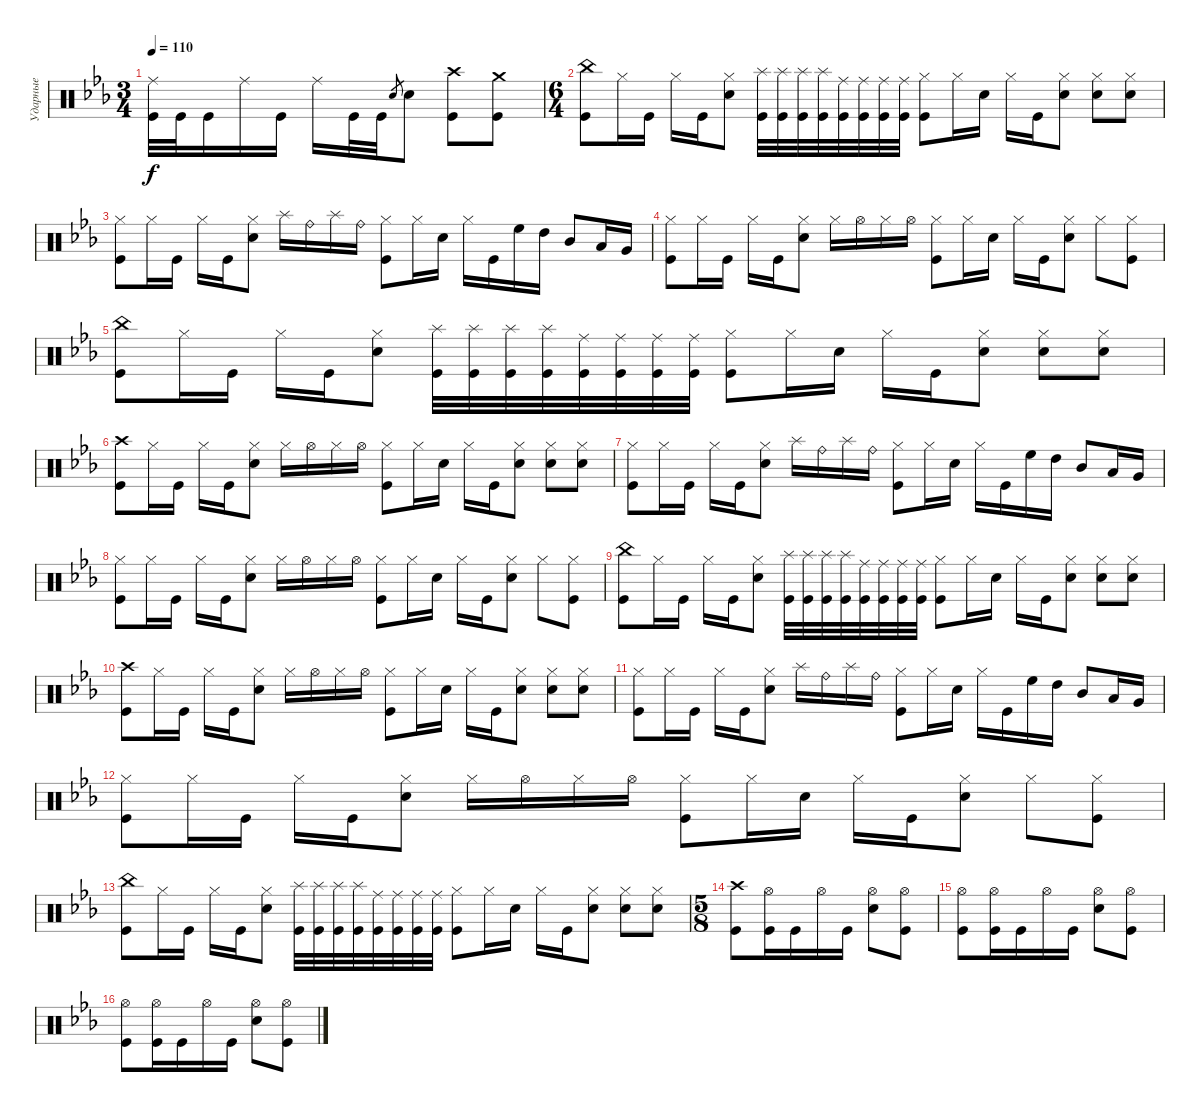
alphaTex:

\track ("Ударные" "Ударные") {instrument percussion}
\staff {score}
\articulation defaults
\ts (3 4)
\tempo 110
\clef neutral
\ks cminor
("Kick (hit)" "Ride (middle)").32{dy f} "Kick (hit)".32 "Kick (hit)".16 "Ride (middle)".16 "Kick (hit)".16 "Ride (middle)".16 "Kick (hit)".32 "Kick (hit)".32 "Snare (hit) 2".8{gr} "Snare (hit) 2".8 ("Kick (hit)" "Crash high (hit)").8 ("Kick (hit)" "Crash medium (hit)").8 |
\ts (6 4)
("Kick (hit)" "China (hit)").8 "Hi-Hat (closed)".16 "Kick (hit)".16 "Hi-Hat (closed)".16 "Kick (hit)".16 ("Hi-Hat (closed)" "Snare (hit) 2").8 ("Kick (hit)" "Splash (hit)").32 ("Kick (hit)" "Splash (hit)").32 ("Kick (hit)" "Splash (hit)").32 ("Kick (hit)" "Splash (hit)").32 ("Kick (hit)" "Ride (middle)").32 ("Kick (hit)" "Ride (middle)").32 ("Kick (hit)" "Ride (middle)").32 ("Kick (hit)" "Ride (middle)").32 ("Kick (hit)" "Hi-Hat (closed)").8 "Hi-Hat (closed)".16 "Snare (hit) 2".16 "Hi-Hat (closed)".16 "Kick (hit)".16 ("Snare (hit) 2" "Hi-Hat (closed)").8 ("Hi-Hat (closed)" "Snare (hit) 2").8 ("Hi-Hat (closed)" "Snare (hit) 2").8 |
("Kick (hit)" "Hi-Hat (closed)").8 "Hi-Hat (closed)".16 "Kick (hit)".16 "Hi-Hat (closed)".16 "Kick (hit)".16 ("Hi-Hat (closed)" "Snare (hit) 2").8 "Splash (hit)".16 "Ride (bell)".16 "Splash (hit)".16 "Ride (bell)".16 ("Kick (hit)" "Hi-Hat (closed)").8 "Hi-Hat (closed)".16 "Snare (hit) 2".16 "Hi-Hat (closed)".16 "Kick (hit)".16 "High Floor Tom (hit)".16 "High Tom (hit)".16 "Mid Tom (hit)".8 "Low Tom (hit)".16 "Very Low Tom (hit)".16 |
("Kick (hit)" "Hi-Hat (closed)").8 "Hi-Hat (closed)".16 "Kick (hit)".16 "Hi-Hat (closed)".16 "Kick (hit)".16 ("Hi-Hat (closed)" "Snare (hit) 2").8 "Hi-Hat (closed)".16 "Hi-Hat (open)".16 "Hi-Hat (closed)".16 "Hi-Hat (open)".16 ("Kick (hit)" "Hi-Hat (closed)").8 "Hi-Hat (closed)".16 "Snare (hit) 2".16 "Hi-Hat (closed)".16 "Kick (hit)".16 ("Snare (hit) 2" "Hi-Hat (closed)").8 "Hi-Hat (closed)".8 ("Hi-Hat (closed)" "Kick (hit)").8 |
("Kick (hit)" "China (hit)").8 "Hi-Hat (closed)".16 "Kick (hit)".16 "Hi-Hat (closed)".16 "Kick (hit)".16 ("Hi-Hat (closed)" "Snare (hit) 2").8 ("Kick (hit)" "Splash (hit)").32 ("Kick (hit)" "Splash (hit)").32 ("Kick (hit)" "Splash (hit)").32 ("Kick (hit)" "Splash (hit)").32 ("Kick (hit)" "Ride (middle)").32 ("Kick (hit)" "Ride (middle)").32 ("Kick (hit)" "Ride (middle)").32 ("Kick (hit)" "Ride (middle)").32 ("Kick (hit)" "Hi-Hat (closed)").8 "Hi-Hat (closed)".16 "Snare (hit) 2".16 "Hi-Hat (closed)".16 "Kick (hit)".16 ("Snare (hit) 2" "Hi-Hat (closed)").8 ("Hi-Hat (closed)" "Snare (hit) 2").8 ("Hi-Hat (closed)" "Snare (hit) 2").8 |
("Kick (hit)" "Crash high (hit)").8 "Hi-Hat (closed)".16 "Kick (hit)".16 "Hi-Hat (closed)".16 "Kick (hit)".16 ("Hi-Hat (closed)" "Snare (hit) 2").8 "Hi-Hat (closed)".16 "Hi-Hat (open)".16 "Hi-Hat (closed)".16 "Hi-Hat (open)".16 ("Kick (hit)" "Hi-Hat (closed)").8 "Hi-Hat (closed)".16 "Snare (hit) 2".16 "Hi-Hat (closed)".16 "Kick (hit)".16 ("Snare (hit) 2" "Hi-Hat (closed)").8 ("Hi-Hat (closed)" "Snare (hit) 2").8 ("Hi-Hat (closed)" "Snare (hit) 2").8 |
("Kick (hit)" "Hi-Hat (closed)").8 "Hi-Hat (closed)".16 "Kick (hit)".16 "Hi-Hat (closed)".16 "Kick (hit)".16 ("Hi-Hat (closed)" "Snare (hit) 2").8 "Splash (hit)".16 "Ride (bell)".16 "Splash (hit)".16 "Ride (bell)".16 ("Kick (hit)" "Hi-Hat (closed)").8 "Hi-Hat (closed)".16 "Snare (hit) 2".16 "Hi-Hat (closed)".16 "Kick (hit)".16 "High Floor Tom (hit)".16 "High Tom (hit)".16 "Mid Tom (hit)".8 "Low Tom (hit)".16 "Very Low Tom (hit)".16 |
("Kick (hit)" "Hi-Hat (closed)").8 "Hi-Hat (closed)".16 "Kick (hit)".16 "Hi-Hat (closed)".16 "Kick (hit)".16 ("Hi-Hat (closed)" "Snare (hit) 2").8 "Hi-Hat (closed)".16 "Hi-Hat (open)".16 "Hi-Hat (closed)".16 "Hi-Hat (open)".16 ("Kick (hit)" "Hi-Hat (closed)").8 "Hi-Hat (closed)".16 "Snare (hit) 2".16 "Hi-Hat (closed)".16 "Kick (hit)".16 ("Snare (hit) 2" "Hi-Hat (closed)").8 "Hi-Hat (closed)".8 ("Hi-Hat (closed)" "Kick (hit)").8 |
("Kick (hit)" "China (hit)").8 "Hi-Hat (closed)".16 "Kick (hit)".16 "Hi-Hat (closed)".16 "Kick (hit)".16 ("Hi-Hat (closed)" "Snare (hit) 2").8 ("Kick (hit)" "Splash (hit)").32 ("Kick (hit)" "Splash (hit)").32 ("Kick (hit)" "Splash (hit)").32 ("Kick (hit)" "Splash (hit)").32 ("Kick (hit)" "Ride (middle)").32 ("Kick (hit)" "Ride (middle)").32 ("Kick (hit)" "Ride (middle)").32 ("Kick (hit)" "Ride (middle)").32 ("Kick (hit)" "Hi-Hat (closed)").8 "Hi-Hat (closed)".16 "Snare (hit) 2".16 "Hi-Hat (closed)".16 "Kick (hit)".16 ("Snare (hit) 2" "Hi-Hat (closed)").8 ("Hi-Hat (closed)" "Snare (hit) 2").8 ("Hi-Hat (closed)" "Snare (hit) 2").8 |
("Kick (hit)" "Crash high (hit)").8 "Hi-Hat (closed)".16 "Kick (hit)".16 "Hi-Hat (closed)".16 "Kick (hit)".16 ("Hi-Hat (closed)" "Snare (hit) 2").8 "Hi-Hat (closed)".16 "Hi-Hat (open)".16 "Hi-Hat (closed)".16 "Hi-Hat (open)".16 ("Kick (hit)" "Hi-Hat (closed)").8 "Hi-Hat (closed)".16 "Snare (hit) 2".16 "Hi-Hat (closed)".16 "Kick (hit)".16 ("Snare (hit) 2" "Hi-Hat (closed)").8 ("Hi-Hat (closed)" "Snare (hit) 2").8 ("Hi-Hat (closed)" "Snare (hit) 2").8 |
("Kick (hit)" "Hi-Hat (closed)").8 "Hi-Hat (closed)".16 "Kick (hit)".16 "Hi-Hat (closed)".16 "Kick (hit)".16 ("Hi-Hat (closed)" "Snare (hit) 2").8 "Splash (hit)".16 "Ride (bell)".16 "Splash (hit)".16 "Ride (bell)".16 ("Kick (hit)" "Hi-Hat (closed)").8 "Hi-Hat (closed)".16 "Snare (hit) 2".16 "Hi-Hat (closed)".16 "Kick (hit)".16 "High Floor Tom (hit)".16 "High Tom (hit)".16 "Mid Tom (hit)".8 "Low Tom (hit)".16 "Very Low Tom (hit)".16 |
("Kick (hit)" "Hi-Hat (closed)").8 "Hi-Hat (closed)".16 "Kick (hit)".16 "Hi-Hat (closed)".16 "Kick (hit)".16 ("Hi-Hat (closed)" "Snare (hit) 2").8 "Hi-Hat (closed)".16 "Hi-Hat (open)".16 "Hi-Hat (closed)".16 "Hi-Hat (open)".16 ("Kick (hit)" "Hi-Hat (closed)").8 "Hi-Hat (closed)".16 "Snare (hit) 2".16 "Hi-Hat (closed)".16 "Kick (hit)".16 ("Snare (hit) 2" "Hi-Hat (closed)").8 "Hi-Hat (closed)".8 ("Hi-Hat (closed)" "Kick (hit)").8 |
("Kick (hit)" "China (hit)").8 "Hi-Hat (closed)".16 "Kick (hit)".16 "Hi-Hat (closed)".16 "Kick (hit)".16 ("Hi-Hat (closed)" "Snare (hit) 2").8 ("Kick (hit)" "Splash (hit)").32 ("Kick (hit)" "Splash (hit)").32 ("Kick (hit)" "Splash (hit)").32 ("Kick (hit)" "Splash (hit)").32 ("Kick (hit)" "Ride (middle)").32 ("Kick (hit)" "Ride (middle)").32 ("Kick (hit)" "Ride (middle)").32 ("Kick (hit)" "Ride (middle)").32 ("Kick (hit)" "Hi-Hat (closed)").8 "Hi-Hat (closed)".16 "Snare (hit) 2".16 "Hi-Hat (closed)".16 "Kick (hit)".16 ("Snare (hit) 2" "Hi-Hat (closed)").8 ("Hi-Hat (closed)" "Snare (hit) 2").8 ("Hi-Hat (closed)" "Snare (hit) 2").8 |
\ts (5 8)
("Kick (hit)" "Crash high (hit)").8 ("Kick (hit)" "Hi-Hat (open)").16 "Kick (hit)".16 "Hi-Hat (open)".16 "Kick (hit)".16 ("Snare (hit) 2" "Hi-Hat (open)").8 ("Kick (hit)" "Hi-Hat (open)").8 |
("Kick (hit)" "Hi-Hat (open)").8 ("Kick (hit)" "Hi-Hat (open)").16 "Kick (hit)".16 "Hi-Hat (open)".16 "Kick (hit)".16 ("Snare (hit) 2" "Hi-Hat (open)").8 ("Kick (hit)" "Hi-Hat (open)").8 |
("Kick (hit)" "Hi-Hat (open)").8 ("Kick (hit)" "Hi-Hat (open)").16 "Kick (hit)".16 "Hi-Hat (open)".16 "Kick (hit)".16 ("Snare (hit) 2" "Hi-Hat (open)").8 ("Kick (hit)" "Hi-Hat (open)").8
